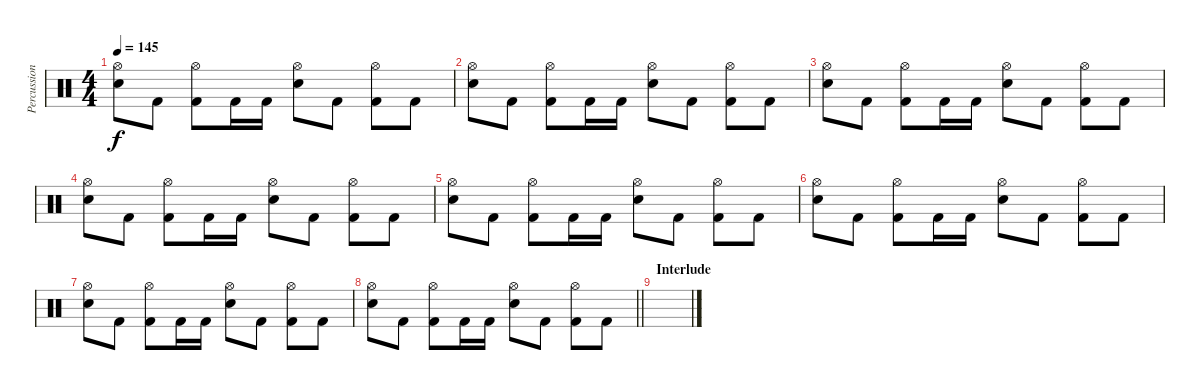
\track ("Percussion" "Percussion") {instrument percussion}
\staff {score}
\articulation defaults
\ts (4 4)
\tempo 145
\clef neutral
\ks c
("Hi-Hat (open)" "Electric Snare (hit)").8{dy f} "Kick (hit) 2".8 ("Hi-Hat (open)" "Kick (hit) 2").8 "Kick (hit) 2".16 "Kick (hit) 2".16 ("Hi-Hat (open)" "Electric Snare (hit)").8 "Kick (hit) 2".8 ("Hi-Hat (open)" "Kick (hit) 2").8 "Kick (hit) 2".8 |
("Hi-Hat (open)" "Electric Snare (hit)").8 "Kick (hit) 2".8 ("Hi-Hat (open)" "Kick (hit) 2").8 "Kick (hit) 2".16 "Kick (hit) 2".16 ("Hi-Hat (open)" "Electric Snare (hit)").8 "Kick (hit) 2".8 ("Hi-Hat (open)" "Kick (hit) 2").8 "Kick (hit) 2".8 |
("Hi-Hat (open)" "Electric Snare (hit)").8 "Kick (hit) 2".8 ("Hi-Hat (open)" "Kick (hit) 2").8 "Kick (hit) 2".16 "Kick (hit) 2".16 ("Hi-Hat (open)" "Electric Snare (hit)").8 "Kick (hit) 2".8 ("Hi-Hat (open)" "Kick (hit) 2").8 "Kick (hit) 2".8 |
("Hi-Hat (open)" "Electric Snare (hit)").8 "Kick (hit) 2".8 ("Hi-Hat (open)" "Kick (hit) 2").8 "Kick (hit) 2".16 "Kick (hit) 2".16 ("Hi-Hat (open)" "Electric Snare (hit)").8 "Kick (hit) 2".8 ("Hi-Hat (open)" "Kick (hit) 2").8 "Kick (hit) 2".8 |
("Hi-Hat (open)" "Electric Snare (hit)").8 "Kick (hit) 2".8 ("Hi-Hat (open)" "Kick (hit) 2").8 "Kick (hit) 2".16 "Kick (hit) 2".16 ("Hi-Hat (open)" "Electric Snare (hit)").8 "Kick (hit) 2".8 ("Hi-Hat (open)" "Kick (hit) 2").8 "Kick (hit) 2".8 |
("Hi-Hat (open)" "Electric Snare (hit)").8 "Kick (hit) 2".8 ("Hi-Hat (open)" "Kick (hit) 2").8 "Kick (hit) 2".16 "Kick (hit) 2".16 ("Hi-Hat (open)" "Electric Snare (hit)").8 "Kick (hit) 2".8 ("Hi-Hat (open)" "Kick (hit) 2").8 "Kick (hit) 2".8 |
("Hi-Hat (open)" "Electric Snare (hit)").8 "Kick (hit) 2".8 ("Hi-Hat (open)" "Kick (hit) 2").8 "Kick (hit) 2".16 "Kick (hit) 2".16 ("Hi-Hat (open)" "Electric Snare (hit)").8 "Kick (hit) 2".8 ("Hi-Hat (open)" "Kick (hit) 2").8 "Kick (hit) 2".8 |
\barLineRight lightlight
("Hi-Hat (open)" "Electric Snare (hit)").8 "Kick (hit) 2".8 ("Hi-Hat (open)" "Kick (hit) 2").8 "Kick (hit) 2".16 "Kick (hit) 2".16 ("Hi-Hat (open)" "Electric Snare (hit)").8 "Kick (hit) 2".8 ("Hi-Hat (open)" "Kick (hit) 2").8 "Kick (hit) 2".8 |
\section ("" "Interlude")
